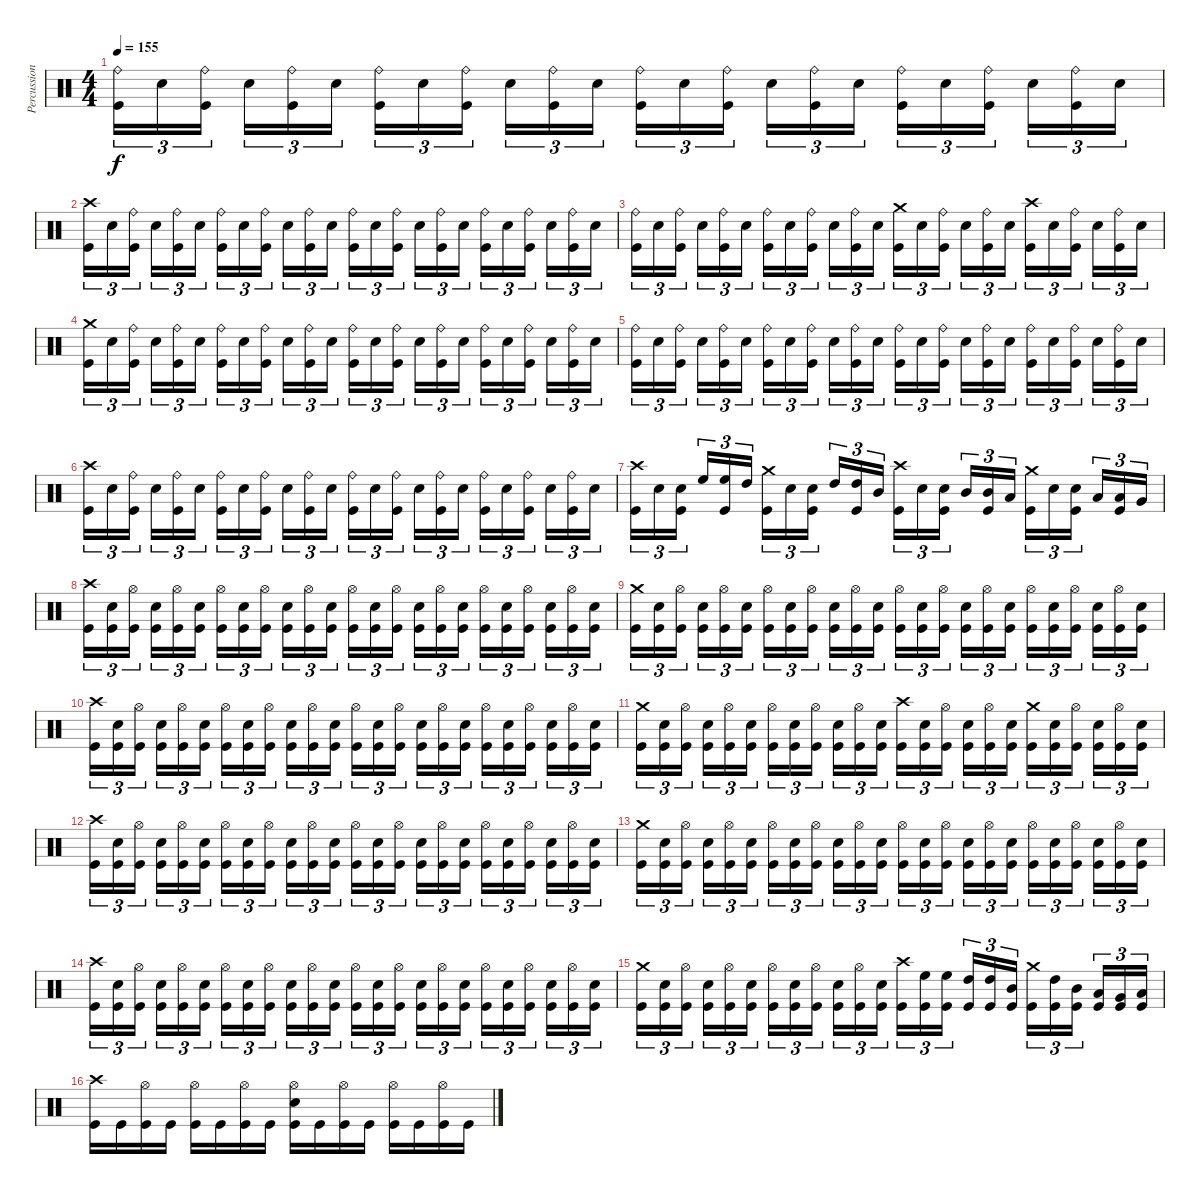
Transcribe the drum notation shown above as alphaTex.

\track ("Percussion" "Percussion") {instrument percussion}
\staff {score}
\articulation defaults
\ts (4 4)
\tempo 155
\clef neutral
\ks c
("Ride (bell)" "Kick (hit)").16{tu (3 2) dy f} "Snare (hit) 2".16{tu (3 2)} ("Ride (bell)" "Kick (hit)").16{tu (3 2) beam splitsecondary} "Snare (hit) 2".16{tu (3 2)} ("Ride (bell)" "Kick (hit)").16{tu (3 2)} "Snare (hit) 2".16{tu (3 2)} ("Ride (bell)" "Kick (hit)").16{tu (3 2)} "Snare (hit) 2".16{tu (3 2)} ("Ride (bell)" "Kick (hit)").16{tu (3 2) beam splitsecondary} "Snare (hit) 2".16{tu (3 2)} ("Ride (bell)" "Kick (hit)").16{tu (3 2)} "Snare (hit) 2".16{tu (3 2)} ("Ride (bell)" "Kick (hit)").16{tu (3 2)} "Snare (hit) 2".16{tu (3 2)} ("Ride (bell)" "Kick (hit)").16{tu (3 2) beam splitsecondary} "Snare (hit) 2".16{tu (3 2)} ("Ride (bell)" "Kick (hit)").16{tu (3 2)} "Snare (hit) 2".16{tu (3 2)} ("Ride (bell)" "Kick (hit)").16{tu (3 2)} "Snare (hit) 2".16{tu (3 2)} ("Ride (bell)" "Kick (hit)").16{tu (3 2) beam splitsecondary} "Snare (hit) 2".16{tu (3 2)} ("Ride (bell)" "Kick (hit)").16{tu (3 2)} "Snare (hit) 2".16{tu (3 2)} |
("Crash high (hit)" "Kick (hit)").16{tu (3 2)} "Snare (hit) 2".16{tu (3 2)} ("Ride (bell)" "Kick (hit)").16{tu (3 2) beam splitsecondary} "Snare (hit) 2".16{tu (3 2)} ("Ride (bell)" "Kick (hit)").16{tu (3 2)} "Snare (hit) 2".16{tu (3 2)} ("Ride (bell)" "Kick (hit)").16{tu (3 2)} "Snare (hit) 2".16{tu (3 2)} ("Ride (bell)" "Kick (hit)").16{tu (3 2) beam splitsecondary} "Snare (hit) 2".16{tu (3 2)} ("Ride (bell)" "Kick (hit)").16{tu (3 2)} "Snare (hit) 2".16{tu (3 2)} ("Ride (bell)" "Kick (hit)").16{tu (3 2)} "Snare (hit) 2".16{tu (3 2)} ("Ride (bell)" "Kick (hit)").16{tu (3 2) beam splitsecondary} "Snare (hit) 2".16{tu (3 2)} ("Ride (bell)" "Kick (hit)").16{tu (3 2)} "Snare (hit) 2".16{tu (3 2)} ("Ride (bell)" "Kick (hit)").16{tu (3 2)} "Snare (hit) 2".16{tu (3 2)} ("Ride (bell)" "Kick (hit)").16{tu (3 2) beam splitsecondary} "Snare (hit) 2".16{tu (3 2)} ("Ride (bell)" "Kick (hit)").16{tu (3 2)} "Snare (hit) 2".16{tu (3 2)} |
("Ride (bell)" "Kick (hit)").16{tu (3 2)} "Snare (hit) 2".16{tu (3 2)} ("Ride (bell)" "Kick (hit)").16{tu (3 2) beam splitsecondary} "Snare (hit) 2".16{tu (3 2)} ("Ride (bell)" "Kick (hit)").16{tu (3 2)} "Snare (hit) 2".16{tu (3 2)} ("Ride (bell)" "Kick (hit)").16{tu (3 2)} "Snare (hit) 2".16{tu (3 2)} ("Ride (bell)" "Kick (hit)").16{tu (3 2) beam splitsecondary} "Snare (hit) 2".16{tu (3 2)} ("Ride (bell)" "Kick (hit)").16{tu (3 2)} "Snare (hit) 2".16{tu (3 2)} ("Crash medium (hit)" "Kick (hit)").16{tu (3 2)} "Snare (hit) 2".16{tu (3 2)} ("Ride (bell)" "Kick (hit)").16{tu (3 2) beam splitsecondary} "Snare (hit) 2".16{tu (3 2)} ("Ride (bell)" "Kick (hit)").16{tu (3 2)} "Snare (hit) 2".16{tu (3 2)} ("Crash high (hit)" "Kick (hit)").16{tu (3 2)} "Snare (hit) 2".16{tu (3 2)} ("Ride (bell)" "Kick (hit)").16{tu (3 2) beam splitsecondary} "Snare (hit) 2".16{tu (3 2)} ("Ride (bell)" "Kick (hit)").16{tu (3 2)} "Snare (hit) 2".16{tu (3 2)} |
("Crash medium (hit)" "Kick (hit)").16{tu (3 2)} "Snare (hit) 2".16{tu (3 2)} ("Ride (bell)" "Kick (hit)").16{tu (3 2) beam splitsecondary} "Snare (hit) 2".16{tu (3 2)} ("Ride (bell)" "Kick (hit)").16{tu (3 2)} "Snare (hit) 2".16{tu (3 2)} ("Ride (bell)" "Kick (hit)").16{tu (3 2)} "Snare (hit) 2".16{tu (3 2)} ("Ride (bell)" "Kick (hit)").16{tu (3 2) beam splitsecondary} "Snare (hit) 2".16{tu (3 2)} ("Ride (bell)" "Kick (hit)").16{tu (3 2)} "Snare (hit) 2".16{tu (3 2)} ("Ride (bell)" "Kick (hit)").16{tu (3 2)} "Snare (hit) 2".16{tu (3 2)} ("Ride (bell)" "Kick (hit)").16{tu (3 2) beam splitsecondary} "Snare (hit) 2".16{tu (3 2)} ("Ride (bell)" "Kick (hit)").16{tu (3 2)} "Snare (hit) 2".16{tu (3 2)} ("Ride (bell)" "Kick (hit)").16{tu (3 2)} "Snare (hit) 2".16{tu (3 2)} ("Ride (bell)" "Kick (hit)").16{tu (3 2) beam splitsecondary} "Snare (hit) 2".16{tu (3 2)} ("Ride (bell)" "Kick (hit)").16{tu (3 2)} "Snare (hit) 2".16{tu (3 2)} |
("Ride (bell)" "Kick (hit)").16{tu (3 2)} "Snare (hit) 2".16{tu (3 2)} ("Ride (bell)" "Kick (hit)").16{tu (3 2) beam splitsecondary} "Snare (hit) 2".16{tu (3 2)} ("Ride (bell)" "Kick (hit)").16{tu (3 2)} "Snare (hit) 2".16{tu (3 2)} ("Ride (bell)" "Kick (hit)").16{tu (3 2)} "Snare (hit) 2".16{tu (3 2)} ("Ride (bell)" "Kick (hit)").16{tu (3 2) beam splitsecondary} "Snare (hit) 2".16{tu (3 2)} ("Ride (bell)" "Kick (hit)").16{tu (3 2)} "Snare (hit) 2".16{tu (3 2)} ("Ride (bell)" "Kick (hit)").16{tu (3 2)} "Snare (hit) 2".16{tu (3 2)} ("Ride (bell)" "Kick (hit)").16{tu (3 2) beam splitsecondary} "Snare (hit) 2".16{tu (3 2)} ("Ride (bell)" "Kick (hit)").16{tu (3 2)} "Snare (hit) 2".16{tu (3 2)} ("Ride (bell)" "Kick (hit)").16{tu (3 2)} "Snare (hit) 2".16{tu (3 2)} ("Ride (bell)" "Kick (hit)").16{tu (3 2) beam splitsecondary} "Snare (hit) 2".16{tu (3 2)} ("Ride (bell)" "Kick (hit)").16{tu (3 2)} "Snare (hit) 2".16{tu (3 2)} |
("Crash high (hit)" "Kick (hit)").16{tu (3 2)} "Snare (hit) 2".16{tu (3 2)} ("Ride (bell)" "Kick (hit)").16{tu (3 2) beam splitsecondary} "Snare (hit) 2".16{tu (3 2)} ("Ride (bell)" "Kick (hit)").16{tu (3 2)} "Snare (hit) 2".16{tu (3 2)} ("Ride (bell)" "Kick (hit)").16{tu (3 2)} "Snare (hit) 2".16{tu (3 2)} ("Ride (bell)" "Kick (hit)").16{tu (3 2) beam splitsecondary} "Snare (hit) 2".16{tu (3 2)} ("Ride (bell)" "Kick (hit)").16{tu (3 2)} "Snare (hit) 2".16{tu (3 2)} ("Ride (bell)" "Kick (hit)").16{tu (3 2)} "Snare (hit) 2".16{tu (3 2)} ("Ride (bell)" "Kick (hit)").16{tu (3 2) beam splitsecondary} "Snare (hit) 2".16{tu (3 2)} ("Ride (bell)" "Kick (hit)").16{tu (3 2)} "Snare (hit) 2".16{tu (3 2)} ("Ride (bell)" "Kick (hit)").16{tu (3 2)} "Snare (hit) 2".16{tu (3 2)} ("Ride (bell)" "Kick (hit)").16{tu (3 2) beam splitsecondary} "Snare (hit) 2".16{tu (3 2)} ("Ride (bell)" "Kick (hit)").16{tu (3 2)} "Snare (hit) 2".16{tu (3 2)} |
("Crash high (hit)" "Kick (hit)").16{tu (3 2)} "Snare (hit) 2".16{tu (3 2)} ("Snare (hit) 2" "Kick (hit)").16{tu (3 2) beam splitsecondary} "High Floor Tom (hit)".16{tu (3 2)} ("High Floor Tom (hit)" "Kick (hit)").16{tu (3 2)} "High Tom (hit)".16{tu (3 2)} ("Crash medium (hit)" "Kick (hit)").16{tu (3 2)} "Snare (hit) 2".16{tu (3 2)} ("Snare (hit) 2" "Kick (hit)").16{tu (3 2) beam splitsecondary} "High Tom (hit)".16{tu (3 2)} ("High Tom (hit)" "Kick (hit)").16{tu (3 2)} "Mid Tom (hit)".16{tu (3 2)} ("Crash high (hit)" "Kick (hit)").16{tu (3 2)} "Snare (hit) 2".16{tu (3 2)} ("Snare (hit) 2" "Kick (hit)").16{tu (3 2) beam splitsecondary} "Mid Tom (hit)".16{tu (3 2)} ("Mid Tom (hit)" "Kick (hit)").16{tu (3 2)} "Low Tom (hit)".16{tu (3 2)} ("Crash medium (hit)" "Kick (hit)").16{tu (3 2)} "Snare (hit) 2".16{tu (3 2)} ("Snare (hit) 2" "Kick (hit)").16{tu (3 2) beam splitsecondary} "Low Tom (hit)".16{tu (3 2)} ("Low Tom (hit)" "Kick (hit)").16{tu (3 2)} "Very Low Tom (hit)".16{tu (3 2)} |
("Crash high (hit)" "Kick (hit)").16{tu (3 2)} ("Snare (hit) 2" "Kick (hit)").16{tu (3 2)} ("Hi-Hat (open)" "Kick (hit)").16{tu (3 2) beam splitsecondary} ("Snare (hit) 2" "Kick (hit)").16{tu (3 2)} ("Hi-Hat (open)" "Kick (hit)").16{tu (3 2)} ("Snare (hit) 2" "Kick (hit)").16{tu (3 2)} ("Hi-Hat (open)" "Kick (hit)").16{tu (3 2)} ("Snare (hit) 2" "Kick (hit)").16{tu (3 2)} ("Hi-Hat (open)" "Kick (hit)").16{tu (3 2) beam splitsecondary} ("Snare (hit) 2" "Kick (hit)").16{tu (3 2)} ("Hi-Hat (open)" "Kick (hit)").16{tu (3 2)} ("Snare (hit) 2" "Kick (hit)").16{tu (3 2)} ("Hi-Hat (open)" "Kick (hit)").16{tu (3 2)} ("Snare (hit) 2" "Kick (hit)").16{tu (3 2)} ("Hi-Hat (open)" "Kick (hit)").16{tu (3 2) beam splitsecondary} ("Snare (hit) 2" "Kick (hit)").16{tu (3 2)} ("Hi-Hat (open)" "Kick (hit)").16{tu (3 2)} ("Snare (hit) 2" "Kick (hit)").16{tu (3 2)} ("Hi-Hat (open)" "Kick (hit)").16{tu (3 2)} ("Snare (hit) 2" "Kick (hit)").16{tu (3 2)} ("Hi-Hat (open)" "Kick (hit)").16{tu (3 2) beam splitsecondary} ("Snare (hit) 2" "Kick (hit)").16{tu (3 2)} ("Hi-Hat (open)" "Kick (hit)").16{tu (3 2)} ("Snare (hit) 2" "Kick (hit)").16{tu (3 2)} |
("Crash medium (hit)" "Kick (hit)").16{tu (3 2)} ("Snare (hit) 2" "Kick (hit)").16{tu (3 2)} ("Hi-Hat (open)" "Kick (hit)").16{tu (3 2) beam splitsecondary} ("Snare (hit) 2" "Kick (hit)").16{tu (3 2)} ("Hi-Hat (open)" "Kick (hit)").16{tu (3 2)} ("Snare (hit) 2" "Kick (hit)").16{tu (3 2)} ("Hi-Hat (open)" "Kick (hit)").16{tu (3 2)} ("Snare (hit) 2" "Kick (hit)").16{tu (3 2)} ("Hi-Hat (open)" "Kick (hit)").16{tu (3 2) beam splitsecondary} ("Snare (hit) 2" "Kick (hit)").16{tu (3 2)} ("Hi-Hat (open)" "Kick (hit)").16{tu (3 2)} ("Snare (hit) 2" "Kick (hit)").16{tu (3 2)} ("Hi-Hat (open)" "Kick (hit)").16{tu (3 2)} ("Snare (hit) 2" "Kick (hit)").16{tu (3 2)} ("Hi-Hat (open)" "Kick (hit)").16{tu (3 2) beam splitsecondary} ("Snare (hit) 2" "Kick (hit)").16{tu (3 2)} ("Hi-Hat (open)" "Kick (hit)").16{tu (3 2)} ("Snare (hit) 2" "Kick (hit)").16{tu (3 2)} ("Hi-Hat (open)" "Kick (hit)").16{tu (3 2)} ("Snare (hit) 2" "Kick (hit)").16{tu (3 2)} ("Hi-Hat (open)" "Kick (hit)").16{tu (3 2) beam splitsecondary} ("Snare (hit) 2" "Kick (hit)").16{tu (3 2)} ("Hi-Hat (open)" "Kick (hit)").16{tu (3 2)} ("Snare (hit) 2" "Kick (hit)").16{tu (3 2)} |
("Crash high (hit)" "Kick (hit)").16{tu (3 2)} ("Snare (hit) 2" "Kick (hit)").16{tu (3 2)} ("Hi-Hat (open)" "Kick (hit)").16{tu (3 2) beam splitsecondary} ("Snare (hit) 2" "Kick (hit)").16{tu (3 2)} ("Hi-Hat (open)" "Kick (hit)").16{tu (3 2)} ("Snare (hit) 2" "Kick (hit)").16{tu (3 2)} ("Hi-Hat (open)" "Kick (hit)").16{tu (3 2)} ("Snare (hit) 2" "Kick (hit)").16{tu (3 2)} ("Hi-Hat (open)" "Kick (hit)").16{tu (3 2) beam splitsecondary} ("Snare (hit) 2" "Kick (hit)").16{tu (3 2)} ("Hi-Hat (open)" "Kick (hit)").16{tu (3 2)} ("Snare (hit) 2" "Kick (hit)").16{tu (3 2)} ("Hi-Hat (open)" "Kick (hit)").16{tu (3 2)} ("Snare (hit) 2" "Kick (hit)").16{tu (3 2)} ("Hi-Hat (open)" "Kick (hit)").16{tu (3 2) beam splitsecondary} ("Snare (hit) 2" "Kick (hit)").16{tu (3 2)} ("Hi-Hat (open)" "Kick (hit)").16{tu (3 2)} ("Snare (hit) 2" "Kick (hit)").16{tu (3 2)} ("Hi-Hat (open)" "Kick (hit)").16{tu (3 2)} ("Snare (hit) 2" "Kick (hit)").16{tu (3 2)} ("Hi-Hat (open)" "Kick (hit)").16{tu (3 2) beam splitsecondary} ("Snare (hit) 2" "Kick (hit)").16{tu (3 2)} ("Hi-Hat (open)" "Kick (hit)").16{tu (3 2)} ("Snare (hit) 2" "Kick (hit)").16{tu (3 2)} |
("Crash medium (hit)" "Kick (hit)").16{tu (3 2)} ("Snare (hit) 2" "Kick (hit)").16{tu (3 2)} ("Hi-Hat (open)" "Kick (hit)").16{tu (3 2) beam splitsecondary} ("Snare (hit) 2" "Kick (hit)").16{tu (3 2)} ("Hi-Hat (open)" "Kick (hit)").16{tu (3 2)} ("Snare (hit) 2" "Kick (hit)").16{tu (3 2)} ("Hi-Hat (open)" "Kick (hit)").16{tu (3 2)} ("Snare (hit) 2" "Kick (hit)").16{tu (3 2)} ("Hi-Hat (open)" "Kick (hit)").16{tu (3 2) beam splitsecondary} ("Snare (hit) 2" "Kick (hit)").16{tu (3 2)} ("Hi-Hat (open)" "Kick (hit)").16{tu (3 2)} ("Snare (hit) 2" "Kick (hit)").16{tu (3 2)} ("Crash high (hit)" "Kick (hit)").16{tu (3 2)} ("Snare (hit) 2" "Kick (hit)").16{tu (3 2)} ("Hi-Hat (open)" "Kick (hit)").16{tu (3 2) beam splitsecondary} ("Snare (hit) 2" "Kick (hit)").16{tu (3 2)} ("Hi-Hat (open)" "Kick (hit)").16{tu (3 2)} ("Snare (hit) 2" "Kick (hit)").16{tu (3 2)} ("Crash medium (hit)" "Kick (hit)").16{tu (3 2)} ("Snare (hit) 2" "Kick (hit)").16{tu (3 2)} ("Hi-Hat (open)" "Kick (hit)").16{tu (3 2) beam splitsecondary} ("Snare (hit) 2" "Kick (hit)").16{tu (3 2)} ("Hi-Hat (open)" "Kick (hit)").16{tu (3 2)} ("Snare (hit) 2" "Kick (hit)").16{tu (3 2)} |
("Crash high (hit)" "Kick (hit)").16{tu (3 2)} ("Snare (hit) 2" "Kick (hit)").16{tu (3 2)} ("Hi-Hat (open)" "Kick (hit)").16{tu (3 2) beam splitsecondary} ("Snare (hit) 2" "Kick (hit)").16{tu (3 2)} ("Hi-Hat (open)" "Kick (hit)").16{tu (3 2)} ("Snare (hit) 2" "Kick (hit)").16{tu (3 2)} ("Hi-Hat (open)" "Kick (hit)").16{tu (3 2)} ("Snare (hit) 2" "Kick (hit)").16{tu (3 2)} ("Hi-Hat (open)" "Kick (hit)").16{tu (3 2) beam splitsecondary} ("Snare (hit) 2" "Kick (hit)").16{tu (3 2)} ("Hi-Hat (open)" "Kick (hit)").16{tu (3 2)} ("Snare (hit) 2" "Kick (hit)").16{tu (3 2)} ("Hi-Hat (open)" "Kick (hit)").16{tu (3 2)} ("Snare (hit) 2" "Kick (hit)").16{tu (3 2)} ("Hi-Hat (open)" "Kick (hit)").16{tu (3 2) beam splitsecondary} ("Snare (hit) 2" "Kick (hit)").16{tu (3 2)} ("Hi-Hat (open)" "Kick (hit)").16{tu (3 2)} ("Snare (hit) 2" "Kick (hit)").16{tu (3 2)} ("Hi-Hat (open)" "Kick (hit)").16{tu (3 2)} ("Snare (hit) 2" "Kick (hit)").16{tu (3 2)} ("Hi-Hat (open)" "Kick (hit)").16{tu (3 2) beam splitsecondary} ("Snare (hit) 2" "Kick (hit)").16{tu (3 2)} ("Hi-Hat (open)" "Kick (hit)").16{tu (3 2)} ("Snare (hit) 2" "Kick (hit)").16{tu (3 2)} |
("Crash medium (hit)" "Kick (hit)").16{tu (3 2)} ("Snare (hit) 2" "Kick (hit)").16{tu (3 2)} ("Hi-Hat (open)" "Kick (hit)").16{tu (3 2) beam splitsecondary} ("Snare (hit) 2" "Kick (hit)").16{tu (3 2)} ("Hi-Hat (open)" "Kick (hit)").16{tu (3 2)} ("Snare (hit) 2" "Kick (hit)").16{tu (3 2)} ("Hi-Hat (open)" "Kick (hit)").16{tu (3 2)} ("Snare (hit) 2" "Kick (hit)").16{tu (3 2)} ("Hi-Hat (open)" "Kick (hit)").16{tu (3 2) beam splitsecondary} ("Snare (hit) 2" "Kick (hit)").16{tu (3 2)} ("Hi-Hat (open)" "Kick (hit)").16{tu (3 2)} ("Snare (hit) 2" "Kick (hit)").16{tu (3 2)} ("Hi-Hat (open)" "Kick (hit)").16{tu (3 2)} ("Snare (hit) 2" "Kick (hit)").16{tu (3 2)} ("Hi-Hat (open)" "Kick (hit)").16{tu (3 2) beam splitsecondary} ("Snare (hit) 2" "Kick (hit)").16{tu (3 2)} ("Hi-Hat (open)" "Kick (hit)").16{tu (3 2)} ("Snare (hit) 2" "Kick (hit)").16{tu (3 2)} ("Hi-Hat (open)" "Kick (hit)").16{tu (3 2)} ("Snare (hit) 2" "Kick (hit)").16{tu (3 2)} ("Hi-Hat (open)" "Kick (hit)").16{tu (3 2) beam splitsecondary} ("Snare (hit) 2" "Kick (hit)").16{tu (3 2)} ("Hi-Hat (open)" "Kick (hit)").16{tu (3 2)} ("Snare (hit) 2" "Kick (hit)").16{tu (3 2)} |
("Crash high (hit)" "Kick (hit)").16{tu (3 2)} ("Snare (hit) 2" "Kick (hit)").16{tu (3 2)} ("Hi-Hat (open)" "Kick (hit)").16{tu (3 2) beam splitsecondary} ("Snare (hit) 2" "Kick (hit)").16{tu (3 2)} ("Hi-Hat (open)" "Kick (hit)").16{tu (3 2)} ("Snare (hit) 2" "Kick (hit)").16{tu (3 2)} ("Hi-Hat (open)" "Kick (hit)").16{tu (3 2)} ("Snare (hit) 2" "Kick (hit)").16{tu (3 2)} ("Hi-Hat (open)" "Kick (hit)").16{tu (3 2) beam splitsecondary} ("Snare (hit) 2" "Kick (hit)").16{tu (3 2)} ("Hi-Hat (open)" "Kick (hit)").16{tu (3 2)} ("Snare (hit) 2" "Kick (hit)").16{tu (3 2)} ("Hi-Hat (open)" "Kick (hit)").16{tu (3 2)} ("Snare (hit) 2" "Kick (hit)").16{tu (3 2)} ("Hi-Hat (open)" "Kick (hit)").16{tu (3 2) beam splitsecondary} ("Snare (hit) 2" "Kick (hit)").16{tu (3 2)} ("Hi-Hat (open)" "Kick (hit)").16{tu (3 2)} ("Snare (hit) 2" "Kick (hit)").16{tu (3 2)} ("Hi-Hat (open)" "Kick (hit)").16{tu (3 2)} ("Snare (hit) 2" "Kick (hit)").16{tu (3 2)} ("Hi-Hat (open)" "Kick (hit)").16{tu (3 2) beam splitsecondary} ("Snare (hit) 2" "Kick (hit)").16{tu (3 2)} ("Hi-Hat (open)" "Kick (hit)").16{tu (3 2)} ("Snare (hit) 2" "Kick (hit)").16{tu (3 2)} |
("Crash medium (hit)" "Kick (hit)").16{tu (3 2)} ("Snare (hit) 2" "Kick (hit)").16{tu (3 2)} ("Hi-Hat (open)" "Kick (hit)").16{tu (3 2) beam splitsecondary} ("Snare (hit) 2" "Kick (hit)").16{tu (3 2)} ("Hi-Hat (open)" "Kick (hit)").16{tu (3 2)} ("Snare (hit) 2" "Kick (hit)").16{tu (3 2)} ("Hi-Hat (open)" "Kick (hit)").16{tu (3 2)} ("Snare (hit) 2" "Kick (hit)").16{tu (3 2)} ("Hi-Hat (open)" "Kick (hit)").16{tu (3 2) beam splitsecondary} ("Snare (hit) 2" "Kick (hit)").16{tu (3 2)} ("Hi-Hat (open)" "Kick (hit)").16{tu (3 2)} ("Snare (hit) 2" "Kick (hit)").16{tu (3 2)} ("Crash high (hit)" "Kick (hit)").16{tu (3 2)} ("High Floor Tom (hit)" "Kick (hit)").16{tu (3 2)} ("High Floor Tom (hit)" "Kick (hit)").16{tu (3 2) beam splitsecondary} ("High Tom (hit)" "Kick (hit)").16{tu (3 2)} ("High Tom (hit)" "Kick (hit)").16{tu (3 2)} ("Mid Tom (hit)" "Kick (hit)").16{tu (3 2)} ("Crash medium (hit)" "Kick (hit)").16{tu (3 2)} ("High Tom (hit)" "Kick (hit)").16{tu (3 2)} ("Mid Tom (hit)" "Kick (hit)").16{tu (3 2) beam splitsecondary} ("Low Tom (hit)" "Kick (hit)").16{tu (3 2)} ("Very Low Tom (hit)" "Kick (hit)").16{tu (3 2)} ("Low Floor Tom (hit)" "Kick (hit)").16{tu (3 2)} |
("Crash high (hit)" "Kick (hit)").16 "Kick (hit)".16 ("Hi-Hat (open)" "Kick (hit)").16 "Kick (hit)".16 ("Hi-Hat (open)" "Kick (hit)").16 "Kick (hit)".16 ("Hi-Hat (open)" "Kick (hit)").16 "Kick (hit)".16 ("Hi-Hat (open)" "Snare (hit) 2" "Kick (hit)").16 "Kick (hit)".16 ("Hi-Hat (open)" "Kick (hit)").16 "Kick (hit)".16 ("Hi-Hat (open)" "Kick (hit)").16 "Kick (hit)".16 ("Hi-Hat (open)" "Kick (hit)").16 "Kick (hit)".16
